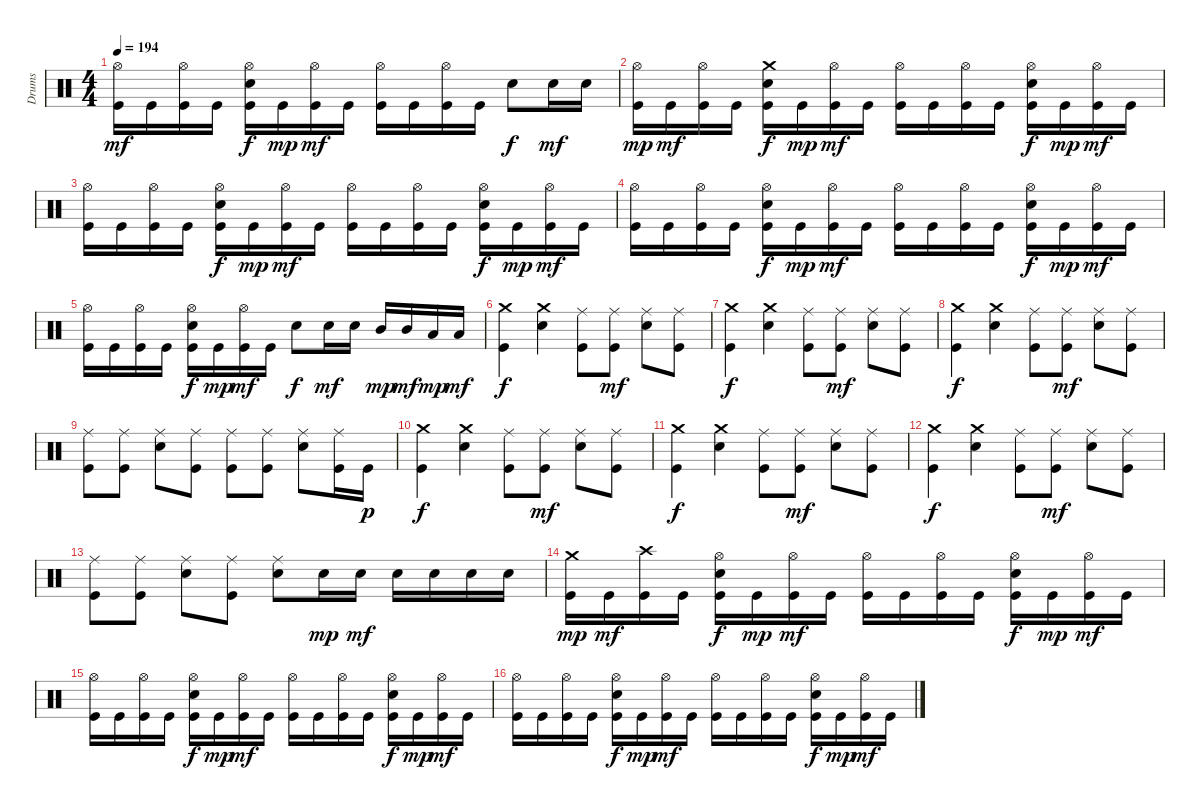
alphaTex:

\track ("Drums" "Drums") {instrument percussion}
\staff {score}
\articulation defaults
\ts (4 4)
\tempo 194
\clef neutral
\ks c
("Hi-Hat (open)" "Kick (hit)").16{dy mf} "Kick (hit)".16 ("Hi-Hat (open)" "Kick (hit)").16 "Kick (hit)".16 ("Hi-Hat (open)" "Kick (hit)" "Snare (hit) 2").16{dy f} "Kick (hit)".16{dy mp} ("Hi-Hat (open)" "Kick (hit)").16{dy mf} "Kick (hit)".16 ("Hi-Hat (open)" "Kick (hit)").16 "Kick (hit)".16 ("Hi-Hat (open)" "Kick (hit)").16 "Kick (hit)".16 "Snare (hit) 2".8{dy f} "Snare (hit) 2".16{dy mf} "Snare (hit) 2".16 |
("Hi-Hat (open)" "Kick (hit)").16{dy mp} "Kick (hit)".16{dy mf} ("Hi-Hat (open)" "Kick (hit)").16 "Kick (hit)".16 ("Crash medium (hit)" "Kick (hit)" "Snare (hit) 2").16{dy f} "Kick (hit)".16{dy mp} ("Hi-Hat (open)" "Kick (hit)").16{dy mf} "Kick (hit)".16 ("Hi-Hat (open)" "Kick (hit)").16 "Kick (hit)".16 ("Hi-Hat (open)" "Kick (hit)").16 "Kick (hit)".16 ("Hi-Hat (open)" "Kick (hit)" "Snare (hit) 2").16{dy f} "Kick (hit)".16{dy mp} ("Hi-Hat (open)" "Kick (hit)").16{dy mf} "Kick (hit)".16 |
("Hi-Hat (open)" "Kick (hit)").16 "Kick (hit)".16 ("Hi-Hat (open)" "Kick (hit)").16 "Kick (hit)".16 ("Hi-Hat (open)" "Kick (hit)" "Snare (hit) 2").16{dy f} "Kick (hit)".16{dy mp} ("Hi-Hat (open)" "Kick (hit)").16{dy mf} "Kick (hit)".16 ("Hi-Hat (open)" "Kick (hit)").16 "Kick (hit)".16 ("Hi-Hat (open)" "Kick (hit)").16 "Kick (hit)".16 ("Hi-Hat (open)" "Kick (hit)" "Snare (hit) 2").16{dy f} "Kick (hit)".16{dy mp} ("Hi-Hat (open)" "Kick (hit)").16{dy mf} "Kick (hit)".16 |
("Hi-Hat (open)" "Kick (hit)").16 "Kick (hit)".16 ("Hi-Hat (open)" "Kick (hit)").16 "Kick (hit)".16 ("Hi-Hat (open)" "Kick (hit)" "Snare (hit) 2").16{dy f} "Kick (hit)".16{dy mp} ("Hi-Hat (open)" "Kick (hit)").16{dy mf} "Kick (hit)".16 ("Hi-Hat (open)" "Kick (hit)").16 "Kick (hit)".16 ("Hi-Hat (open)" "Kick (hit)").16 "Kick (hit)".16 ("Hi-Hat (open)" "Kick (hit)" "Snare (hit) 2").16{dy f} "Kick (hit)".16{dy mp} ("Hi-Hat (open)" "Kick (hit)").16{dy mf} "Kick (hit)".16 |
("Hi-Hat (open)" "Kick (hit)").16 "Kick (hit)".16 ("Hi-Hat (open)" "Kick (hit)").16 "Kick (hit)".16 ("Hi-Hat (open)" "Kick (hit)" "Snare (hit) 2").16{dy f} "Kick (hit)".16{dy mp} ("Hi-Hat (open)" "Kick (hit)").16{dy mf} "Kick (hit)".16 "Snare (hit) 2".8{dy f} "Snare (hit) 2".16{dy mf} "Snare (hit) 2".16 "Mid Tom (hit)".16{dy mp} "Mid Tom (hit)".16{dy mf} "Low Tom (hit)".16{dy mp} "Low Tom (hit)".16{dy mf} |
("Crash medium (hit)" "Kick (hit)").4{dy f} ("Crash medium (hit)" "Snare (hit) 2").4 ("Kick (hit)" "Ride (middle)").8 ("Kick (hit)" "Ride (middle)").8{dy mf} ("Snare (hit) 2" "Ride (middle)").8 ("Kick (hit)" "Ride (middle)").8 |
("Crash medium (hit)" "Kick (hit)").4{dy f} ("Crash medium (hit)" "Snare (hit) 2").4 ("Kick (hit)" "Ride (middle)").8 ("Kick (hit)" "Ride (middle)").8{dy mf} ("Snare (hit) 2" "Ride (middle)").8 ("Kick (hit)" "Ride (middle)").8 |
("Crash medium (hit)" "Kick (hit)").4{dy f} ("Crash medium (hit)" "Snare (hit) 2").4 ("Kick (hit)" "Ride (middle)").8 ("Kick (hit)" "Ride (middle)").8{dy mf} ("Snare (hit) 2" "Ride (middle)").8 ("Kick (hit)" "Ride (middle)").8 |
("Kick (hit)" "Ride (middle)").8 ("Kick (hit)" "Ride (middle)").8 ("Snare (hit) 2" "Ride (middle)").8 ("Kick (hit)" "Ride (middle)").8 ("Kick (hit)" "Ride (middle)").8 ("Kick (hit)" "Ride (middle)").8 ("Snare (hit) 2" "Ride (middle)").8 ("Kick (hit)" "Ride (middle)").16 "Kick (hit)".16{dy p} |
("Crash medium (hit)" "Kick (hit)").4{dy f} ("Crash medium (hit)" "Snare (hit) 2").4 ("Kick (hit)" "Ride (middle)").8 ("Kick (hit)" "Ride (middle)").8{dy mf} ("Snare (hit) 2" "Ride (middle)").8 ("Kick (hit)" "Ride (middle)").8 |
("Crash medium (hit)" "Kick (hit)").4{dy f} ("Crash medium (hit)" "Snare (hit) 2").4 ("Kick (hit)" "Ride (middle)").8 ("Kick (hit)" "Ride (middle)").8{dy mf} ("Snare (hit) 2" "Ride (middle)").8 ("Kick (hit)" "Ride (middle)").8 |
("Crash medium (hit)" "Kick (hit)").4{dy f} ("Crash medium (hit)" "Snare (hit) 2").4 ("Kick (hit)" "Ride (middle)").8 ("Kick (hit)" "Ride (middle)").8{dy mf} ("Snare (hit) 2" "Ride (middle)").8 ("Kick (hit)" "Ride (middle)").8 |
("Kick (hit)" "Ride (middle)").8 ("Kick (hit)" "Ride (middle)").8 ("Snare (hit) 2" "Ride (middle)").8 ("Kick (hit)" "Ride (middle)").8 ("Snare (hit) 2" "Ride (middle)").8 "Snare (hit) 2".16{dy mp} "Snare (hit) 2".16{dy mf} "Snare (hit) 2".16 "Snare (hit) 2".16 "Snare (hit) 2".16 "Snare (hit) 2".16 |
("Crash medium (hit)" "Kick (hit)").16{dy mp} "Kick (hit)".16{dy mf} ("Crash high (hit)" "Kick (hit)").16 "Kick (hit)".16 ("Hi-Hat (open)" "Kick (hit)" "Snare (hit) 2").16{dy f} "Kick (hit)".16{dy mp} ("Hi-Hat (open)" "Kick (hit)").16{dy mf} "Kick (hit)".16 ("Hi-Hat (open)" "Kick (hit)").16 "Kick (hit)".16 ("Hi-Hat (open)" "Kick (hit)").16 "Kick (hit)".16 ("Hi-Hat (open)" "Kick (hit)" "Snare (hit) 2").16{dy f} "Kick (hit)".16{dy mp} ("Hi-Hat (open)" "Kick (hit)").16{dy mf} "Kick (hit)".16 |
("Hi-Hat (open)" "Kick (hit)").16 "Kick (hit)".16 ("Hi-Hat (open)" "Kick (hit)").16 "Kick (hit)".16 ("Hi-Hat (open)" "Kick (hit)" "Snare (hit) 2").16{dy f} "Kick (hit)".16{dy mp} ("Hi-Hat (open)" "Kick (hit)").16{dy mf} "Kick (hit)".16 ("Hi-Hat (open)" "Kick (hit)").16 "Kick (hit)".16 ("Hi-Hat (open)" "Kick (hit)").16 "Kick (hit)".16 ("Hi-Hat (open)" "Kick (hit)" "Snare (hit) 2").16{dy f} "Kick (hit)".16{dy mp} ("Hi-Hat (open)" "Kick (hit)").16{dy mf} "Kick (hit)".16 |
("Hi-Hat (open)" "Kick (hit)").16 "Kick (hit)".16 ("Hi-Hat (open)" "Kick (hit)").16 "Kick (hit)".16 ("Hi-Hat (open)" "Kick (hit)" "Snare (hit) 2").16{dy f} "Kick (hit)".16{dy mp} ("Hi-Hat (open)" "Kick (hit)").16{dy mf} "Kick (hit)".16 ("Hi-Hat (open)" "Kick (hit)").16 "Kick (hit)".16 ("Hi-Hat (open)" "Kick (hit)").16 "Kick (hit)".16 ("Hi-Hat (open)" "Kick (hit)" "Snare (hit) 2").16{dy f} "Kick (hit)".16{dy mp} ("Hi-Hat (open)" "Kick (hit)").16{dy mf} "Kick (hit)".16
